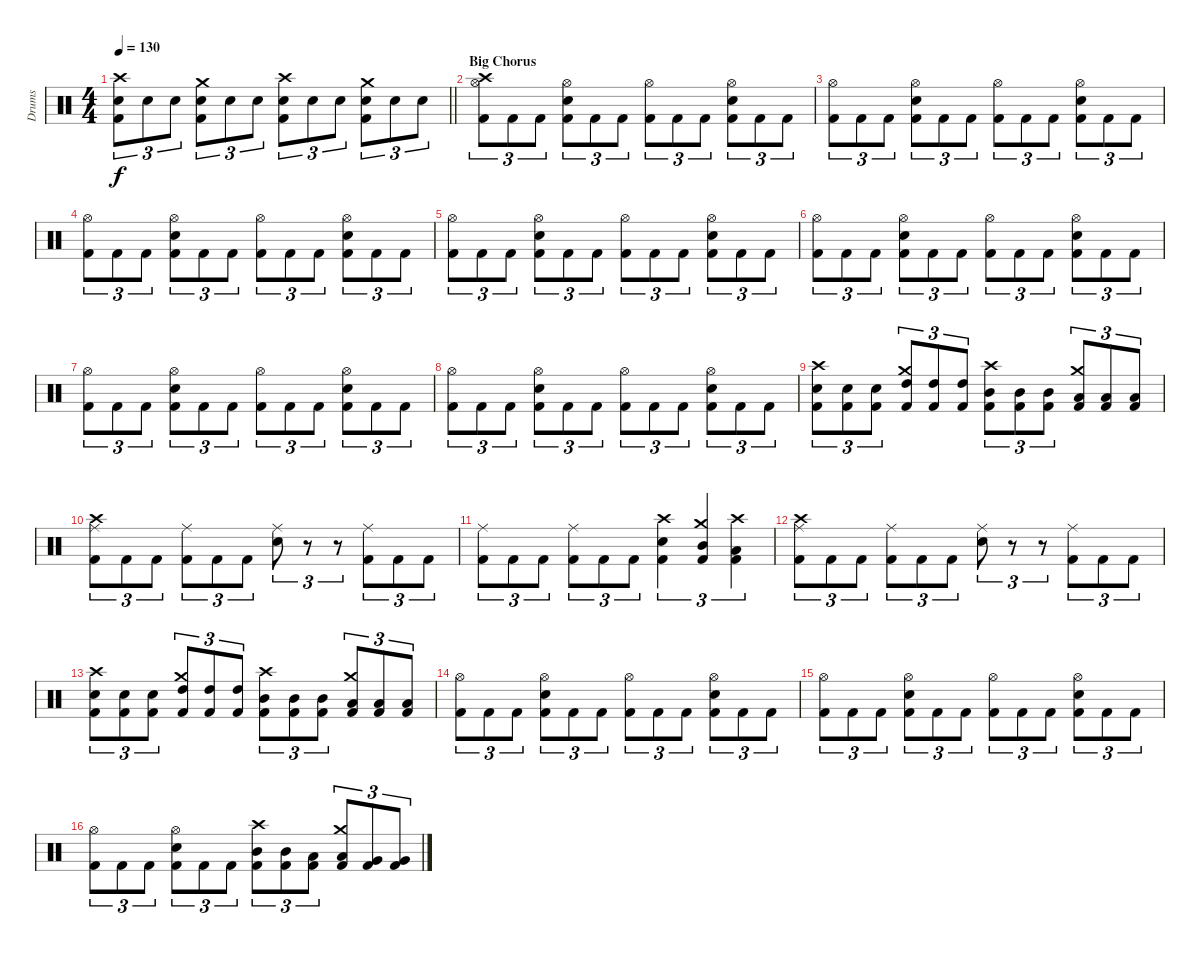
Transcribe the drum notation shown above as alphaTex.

\track ("Drums" "Drums") {instrument percussion}
\staff {score}
\articulation defaults
\ts (4 4)
\tempo 130
\clef neutral
\barLineRight lightlight
\ks c
("Crash high (hit)" "Snare (hit) 2" "Kick (hit) 2").8{tu (3 2) dy f} "Snare (hit) 2".8{tu (3 2)} "Snare (hit) 2".8{tu (3 2)} ("Crash medium (hit)" "Snare (hit) 2" "Kick (hit) 2").8{tu (3 2)} "Snare (hit) 2".8{tu (3 2)} "Snare (hit) 2".8{tu (3 2)} ("Crash high (hit)" "Snare (hit) 2" "Kick (hit) 2").8{tu (3 2)} "Snare (hit) 2".8{tu (3 2)} "Snare (hit) 2".8{tu (3 2)} ("Crash medium (hit)" "Snare (hit) 2" "Kick (hit) 2").8{tu (3 2)} "Snare (hit) 2".8{tu (3 2)} "Snare (hit) 2".8{tu (3 2)} |
\section ("" "Big Chorus")
("Crash high (hit)" "Hi-Hat (open)" "Kick (hit) 2").8{tu (3 2)} "Kick (hit) 2".8{tu (3 2)} "Kick (hit) 2".8{tu (3 2)} ("Hi-Hat (open)" "Snare (hit) 2" "Kick (hit) 2").8{tu (3 2)} "Kick (hit) 2".8{tu (3 2)} "Kick (hit) 2".8{tu (3 2)} ("Hi-Hat (open)" "Kick (hit) 2").8{tu (3 2)} "Kick (hit) 2".8{tu (3 2)} "Kick (hit) 2".8{tu (3 2)} ("Hi-Hat (open)" "Snare (hit) 2" "Kick (hit) 2").8{tu (3 2)} "Kick (hit) 2".8{tu (3 2)} "Kick (hit) 2".8{tu (3 2)} |
("Hi-Hat (open)" "Kick (hit) 2").8{tu (3 2)} "Kick (hit) 2".8{tu (3 2)} "Kick (hit) 2".8{tu (3 2)} ("Hi-Hat (open)" "Snare (hit) 2" "Kick (hit) 2").8{tu (3 2)} "Kick (hit) 2".8{tu (3 2)} "Kick (hit) 2".8{tu (3 2)} ("Hi-Hat (open)" "Kick (hit) 2").8{tu (3 2)} "Kick (hit) 2".8{tu (3 2)} "Kick (hit) 2".8{tu (3 2)} ("Hi-Hat (open)" "Snare (hit) 2" "Kick (hit) 2").8{tu (3 2)} "Kick (hit) 2".8{tu (3 2)} "Kick (hit) 2".8{tu (3 2)} |
("Hi-Hat (open)" "Kick (hit) 2").8{tu (3 2)} "Kick (hit) 2".8{tu (3 2)} "Kick (hit) 2".8{tu (3 2)} ("Hi-Hat (open)" "Snare (hit) 2" "Kick (hit) 2").8{tu (3 2)} "Kick (hit) 2".8{tu (3 2)} "Kick (hit) 2".8{tu (3 2)} ("Hi-Hat (open)" "Kick (hit) 2").8{tu (3 2)} "Kick (hit) 2".8{tu (3 2)} "Kick (hit) 2".8{tu (3 2)} ("Hi-Hat (open)" "Snare (hit) 2" "Kick (hit) 2").8{tu (3 2)} "Kick (hit) 2".8{tu (3 2)} "Kick (hit) 2".8{tu (3 2)} |
("Hi-Hat (open)" "Kick (hit) 2").8{tu (3 2)} "Kick (hit) 2".8{tu (3 2)} "Kick (hit) 2".8{tu (3 2)} ("Hi-Hat (open)" "Snare (hit) 2" "Kick (hit) 2").8{tu (3 2)} "Kick (hit) 2".8{tu (3 2)} "Kick (hit) 2".8{tu (3 2)} ("Hi-Hat (open)" "Kick (hit) 2").8{tu (3 2)} "Kick (hit) 2".8{tu (3 2)} "Kick (hit) 2".8{tu (3 2)} ("Hi-Hat (open)" "Snare (hit) 2" "Kick (hit) 2").8{tu (3 2)} "Kick (hit) 2".8{tu (3 2)} "Kick (hit) 2".8{tu (3 2)} |
("Hi-Hat (open)" "Kick (hit) 2").8{tu (3 2)} "Kick (hit) 2".8{tu (3 2)} "Kick (hit) 2".8{tu (3 2)} ("Hi-Hat (open)" "Snare (hit) 2" "Kick (hit) 2").8{tu (3 2)} "Kick (hit) 2".8{tu (3 2)} "Kick (hit) 2".8{tu (3 2)} ("Hi-Hat (open)" "Kick (hit) 2").8{tu (3 2)} "Kick (hit) 2".8{tu (3 2)} "Kick (hit) 2".8{tu (3 2)} ("Hi-Hat (open)" "Snare (hit) 2" "Kick (hit) 2").8{tu (3 2)} "Kick (hit) 2".8{tu (3 2)} "Kick (hit) 2".8{tu (3 2)} |
("Hi-Hat (open)" "Kick (hit) 2").8{tu (3 2)} "Kick (hit) 2".8{tu (3 2)} "Kick (hit) 2".8{tu (3 2)} ("Hi-Hat (open)" "Snare (hit) 2" "Kick (hit) 2").8{tu (3 2)} "Kick (hit) 2".8{tu (3 2)} "Kick (hit) 2".8{tu (3 2)} ("Hi-Hat (open)" "Kick (hit) 2").8{tu (3 2)} "Kick (hit) 2".8{tu (3 2)} "Kick (hit) 2".8{tu (3 2)} ("Hi-Hat (open)" "Snare (hit) 2" "Kick (hit) 2").8{tu (3 2)} "Kick (hit) 2".8{tu (3 2)} "Kick (hit) 2".8{tu (3 2)} |
("Hi-Hat (open)" "Kick (hit) 2").8{tu (3 2)} "Kick (hit) 2".8{tu (3 2)} "Kick (hit) 2".8{tu (3 2)} ("Hi-Hat (open)" "Snare (hit) 2" "Kick (hit) 2").8{tu (3 2)} "Kick (hit) 2".8{tu (3 2)} "Kick (hit) 2".8{tu (3 2)} ("Hi-Hat (open)" "Kick (hit) 2").8{tu (3 2)} "Kick (hit) 2".8{tu (3 2)} "Kick (hit) 2".8{tu (3 2)} ("Hi-Hat (open)" "Snare (hit) 2" "Kick (hit) 2").8{tu (3 2)} "Kick (hit) 2".8{tu (3 2)} "Kick (hit) 2".8{tu (3 2)} |
("Crash high (hit)" "Snare (hit) 2" "Kick (hit) 2").8{tu (3 2)} ("Snare (hit) 2" "Kick (hit) 2").8{tu (3 2)} ("Snare (hit) 2" "Kick (hit) 2").8{tu (3 2)} ("Crash medium (hit)" "High Tom (hit)" "Kick (hit) 2").8{tu (3 2)} ("High Tom (hit)" "Kick (hit) 2").8{tu (3 2)} ("High Tom (hit)" "Kick (hit) 2").8{tu (3 2)} ("Crash high (hit)" "Mid Tom (hit)" "Kick (hit) 2").8{tu (3 2)} ("Mid Tom (hit)" "Kick (hit) 2").8{tu (3 2)} ("Mid Tom (hit)" "Kick (hit) 2").8{tu (3 2)} ("Crash medium (hit)" "Low Tom (hit)" "Kick (hit) 2").8{tu (3 2)} ("Low Tom (hit)" "Kick (hit) 2").8{tu (3 2)} ("Low Tom (hit)" "Kick (hit) 2").8{tu (3 2)} |
("Crash high (hit)" "Ride (middle)" "Kick (hit) 2").8{tu (3 2)} "Kick (hit) 2".8{tu (3 2)} "Kick (hit) 2".8{tu (3 2)} ("Ride (middle)" "Kick (hit) 2").8{tu (3 2)} "Kick (hit) 2".8{tu (3 2)} "Kick (hit) 2".8{tu (3 2)} ("Ride (middle)" "Snare (hit) 2").8{tu (3 2)} r.8{tu (3 2)} r.8{tu (3 2)} ("Ride (middle)" "Kick (hit) 2").8{tu (3 2)} "Kick (hit) 2".8{tu (3 2)} "Kick (hit) 2".8{tu (3 2)} |
("Ride (middle)" "Kick (hit) 2").8{tu (3 2)} "Kick (hit) 2".8{tu (3 2)} "Kick (hit) 2".8{tu (3 2)} ("Ride (middle)" "Kick (hit) 2").8{tu (3 2)} "Kick (hit) 2".8{tu (3 2)} "Kick (hit) 2".8{tu (3 2)} ("Crash high (hit)" "Snare (hit) 2" "Kick (hit) 2").4{tu (3 2)} ("Crash medium (hit)" "Mid Tom (hit)" "Kick (hit) 2").4{tu (3 2)} ("Crash high (hit)" "Low Tom (hit)" "Kick (hit) 2").4{tu (3 2)} |
("Crash high (hit)" "Ride (middle)" "Kick (hit) 2").8{tu (3 2)} "Kick (hit) 2".8{tu (3 2)} "Kick (hit) 2".8{tu (3 2)} ("Ride (middle)" "Kick (hit) 2").8{tu (3 2)} "Kick (hit) 2".8{tu (3 2)} "Kick (hit) 2".8{tu (3 2)} ("Ride (middle)" "Snare (hit) 2").8{tu (3 2)} r.8{tu (3 2)} r.8{tu (3 2)} ("Ride (middle)" "Kick (hit) 2").8{tu (3 2)} "Kick (hit) 2".8{tu (3 2)} "Kick (hit) 2".8{tu (3 2)} |
("Crash high (hit)" "Snare (hit) 2" "Kick (hit) 2").8{tu (3 2)} ("Snare (hit) 2" "Kick (hit) 2").8{tu (3 2)} ("Snare (hit) 2" "Kick (hit) 2").8{tu (3 2)} ("Crash medium (hit)" "High Tom (hit)" "Kick (hit) 2").8{tu (3 2)} ("High Tom (hit)" "Kick (hit) 2").8{tu (3 2)} ("High Tom (hit)" "Kick (hit) 2").8{tu (3 2)} ("Crash high (hit)" "Mid Tom (hit)" "Kick (hit) 2").8{tu (3 2)} ("Mid Tom (hit)" "Kick (hit) 2").8{tu (3 2)} ("Mid Tom (hit)" "Kick (hit) 2").8{tu (3 2)} ("Crash medium (hit)" "Low Tom (hit)" "Kick (hit) 2").8{tu (3 2)} ("Low Tom (hit)" "Kick (hit) 2").8{tu (3 2)} ("Low Tom (hit)" "Kick (hit) 2").8{tu (3 2)} |
("Hi-Hat (open)" "Kick (hit) 2").8{tu (3 2)} "Kick (hit) 2".8{tu (3 2)} "Kick (hit) 2".8{tu (3 2)} ("Hi-Hat (open)" "Snare (hit) 2" "Kick (hit) 2").8{tu (3 2)} "Kick (hit) 2".8{tu (3 2)} "Kick (hit) 2".8{tu (3 2)} ("Hi-Hat (open)" "Kick (hit) 2").8{tu (3 2)} "Kick (hit) 2".8{tu (3 2)} "Kick (hit) 2".8{tu (3 2)} ("Hi-Hat (open)" "Snare (hit) 2" "Kick (hit) 2").8{tu (3 2)} "Kick (hit) 2".8{tu (3 2)} "Kick (hit) 2".8{tu (3 2)} |
("Hi-Hat (open)" "Kick (hit) 2").8{tu (3 2)} "Kick (hit) 2".8{tu (3 2)} "Kick (hit) 2".8{tu (3 2)} ("Hi-Hat (open)" "Snare (hit) 2" "Kick (hit) 2").8{tu (3 2)} "Kick (hit) 2".8{tu (3 2)} "Kick (hit) 2".8{tu (3 2)} ("Hi-Hat (open)" "Kick (hit) 2").8{tu (3 2)} "Kick (hit) 2".8{tu (3 2)} "Kick (hit) 2".8{tu (3 2)} ("Hi-Hat (open)" "Snare (hit) 2" "Kick (hit) 2").8{tu (3 2)} "Kick (hit) 2".8{tu (3 2)} "Kick (hit) 2".8{tu (3 2)} |
("Hi-Hat (open)" "Kick (hit) 2").8{tu (3 2)} "Kick (hit) 2".8{tu (3 2)} "Kick (hit) 2".8{tu (3 2)} ("Hi-Hat (open)" "Snare (hit) 2" "Kick (hit) 2").8{tu (3 2)} "Kick (hit) 2".8{tu (3 2)} "Kick (hit) 2".8{tu (3 2)} ("Crash high (hit)" "Mid Tom (hit)" "Kick (hit) 2").8{tu (3 2)} ("Mid Tom (hit)" "Kick (hit) 2").8{tu (3 2)} ("Low Tom (hit)" "Kick (hit) 2").8{tu (3 2)} ("Crash medium (hit)" "Low Tom (hit)" "Kick (hit) 2").8{tu (3 2)} ("Very Low Tom (hit)" "Kick (hit) 2").8{tu (3 2)} ("Very Low Tom (hit)" "Kick (hit) 2").8{tu (3 2)}
